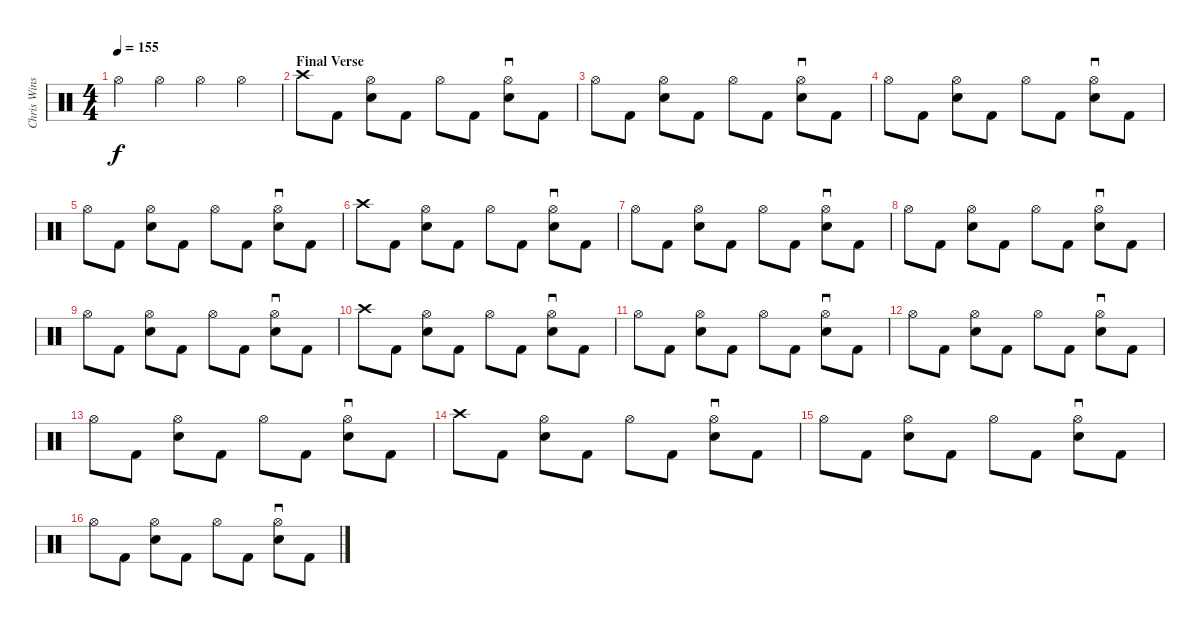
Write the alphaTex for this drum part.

\track ("Chris Winship (Drums)" "Chris Wins") {instrument percussion}
\staff {score}
\articulation defaults
\ts (4 4)
\tempo 155
\clef neutral
\ks c "Hi-Hat (open)".4{dy f} "Hi-Hat (open)".4 "Hi-Hat (open)".4 "Hi-Hat (open)".4
|
\section ("" "Final Verse")
"Crash high (hit)".8 "Kick (hit) 2".8 ("Hi-Hat (open)" "Snare (hit) 2").8 "Kick (hit) 2".8 "Hi-Hat (open)".8 "Kick (hit) 2".8 ("Hi-Hat (open)" "Snare (hit) 2").8{sd} "Kick (hit) 2".8 |
"Hi-Hat (open)".8 "Kick (hit) 2".8 ("Hi-Hat (open)" "Snare (hit) 2").8 "Kick (hit) 2".8 "Hi-Hat (open)".8 "Kick (hit) 2".8 ("Hi-Hat (open)" "Snare (hit) 2").8{sd} "Kick (hit) 2".8 |
"Hi-Hat (open)".8 "Kick (hit) 2".8 ("Hi-Hat (open)" "Snare (hit) 2").8 "Kick (hit) 2".8 "Hi-Hat (open)".8 "Kick (hit) 2".8 ("Hi-Hat (open)" "Snare (hit) 2").8{sd} "Kick (hit) 2".8 |
"Hi-Hat (open)".8 "Kick (hit) 2".8 ("Hi-Hat (open)" "Snare (hit) 2").8 "Kick (hit) 2".8 "Hi-Hat (open)".8 "Kick (hit) 2".8 ("Hi-Hat (open)" "Snare (hit) 2").8{sd} "Kick (hit) 2".8 |
"Crash high (hit)".8 "Kick (hit) 2".8 ("Hi-Hat (open)" "Snare (hit) 2").8 "Kick (hit) 2".8 "Hi-Hat (open)".8 "Kick (hit) 2".8 ("Hi-Hat (open)" "Snare (hit) 2").8{sd} "Kick (hit) 2".8 |
"Hi-Hat (open)".8 "Kick (hit) 2".8 ("Hi-Hat (open)" "Snare (hit) 2").8 "Kick (hit) 2".8 "Hi-Hat (open)".8 "Kick (hit) 2".8 ("Hi-Hat (open)" "Snare (hit) 2").8{sd} "Kick (hit) 2".8 |
"Hi-Hat (open)".8 "Kick (hit) 2".8 ("Hi-Hat (open)" "Snare (hit) 2").8 "Kick (hit) 2".8 "Hi-Hat (open)".8 "Kick (hit) 2".8 ("Hi-Hat (open)" "Snare (hit) 2").8{sd} "Kick (hit) 2".8 |
"Hi-Hat (open)".8 "Kick (hit) 2".8 ("Hi-Hat (open)" "Snare (hit) 2").8 "Kick (hit) 2".8 "Hi-Hat (open)".8 "Kick (hit) 2".8 ("Hi-Hat (open)" "Snare (hit) 2").8{sd} "Kick (hit) 2".8 |
"Crash high (hit)".8 "Kick (hit) 2".8 ("Hi-Hat (open)" "Snare (hit) 2").8 "Kick (hit) 2".8 "Hi-Hat (open)".8 "Kick (hit) 2".8 ("Hi-Hat (open)" "Snare (hit) 2").8{sd} "Kick (hit) 2".8 |
"Hi-Hat (open)".8 "Kick (hit) 2".8 ("Hi-Hat (open)" "Snare (hit) 2").8 "Kick (hit) 2".8 "Hi-Hat (open)".8 "Kick (hit) 2".8 ("Hi-Hat (open)" "Snare (hit) 2").8{sd} "Kick (hit) 2".8 |
"Hi-Hat (open)".8 "Kick (hit) 2".8 ("Hi-Hat (open)" "Snare (hit) 2").8 "Kick (hit) 2".8 "Hi-Hat (open)".8 "Kick (hit) 2".8 ("Hi-Hat (open)" "Snare (hit) 2").8{sd} "Kick (hit) 2".8 |
"Hi-Hat (open)".8 "Kick (hit) 2".8 ("Hi-Hat (open)" "Snare (hit) 2").8 "Kick (hit) 2".8 "Hi-Hat (open)".8 "Kick (hit) 2".8 ("Hi-Hat (open)" "Snare (hit) 2").8{sd} "Kick (hit) 2".8 |
"Crash high (hit)".8 "Kick (hit) 2".8 ("Hi-Hat (open)" "Snare (hit) 2").8 "Kick (hit) 2".8 "Hi-Hat (open)".8 "Kick (hit) 2".8 ("Hi-Hat (open)" "Snare (hit) 2").8{sd} "Kick (hit) 2".8 |
"Hi-Hat (open)".8 "Kick (hit) 2".8 ("Hi-Hat (open)" "Snare (hit) 2").8 "Kick (hit) 2".8 "Hi-Hat (open)".8 "Kick (hit) 2".8 ("Hi-Hat (open)" "Snare (hit) 2").8{sd} "Kick (hit) 2".8 |
"Hi-Hat (open)".8 "Kick (hit) 2".8 ("Hi-Hat (open)" "Snare (hit) 2").8 "Kick (hit) 2".8 "Hi-Hat (open)".8 "Kick (hit) 2".8 ("Hi-Hat (open)" "Snare (hit) 2").8{sd} "Kick (hit) 2".8
